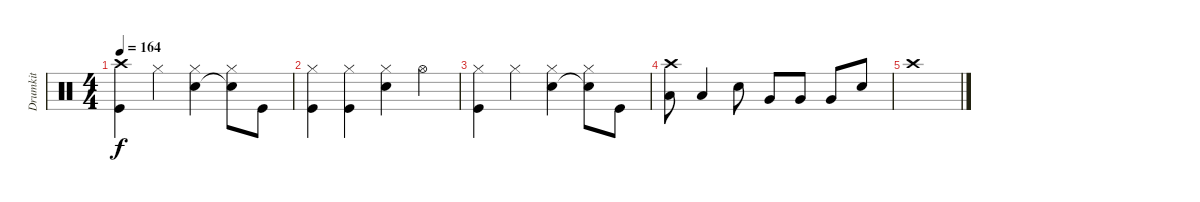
\track ("Drumkit" "Drumkit") {instrument percussion}
\staff {score}
\articulation defaults
\ts (4 4)
\tempo 164
\clef neutral
\ks c
("Crash high (hit)" "Kick (hit)").4{dy f} "Hi-Hat (closed)".4 ("Hi-Hat (closed)" "Snare (hit) 2").4 ("Hi-Hat (closed)" "Snare (hit) 2"{t}).8 "Kick (hit)".8 |
("Hi-Hat (closed)" "Kick (hit)").4 ("Hi-Hat (closed)" "Kick (hit)").4 ("Hi-Hat (closed)" "Snare (hit) 2").4 "Hi-Hat (open)".4 |
("Hi-Hat (closed)" "Kick (hit)").4 "Hi-Hat (closed)".4 ("Hi-Hat (closed)" "Snare (hit) 2").4 ("Hi-Hat (closed)" "Snare (hit) 2"{t}).8 "Kick (hit)".8 |
("Low Tom (hit)" "Crash high (hit)").8 "Low Tom (hit)".4 "Snare (hit) 2".8 "Very Low Tom (hit)".8 "Very Low Tom (hit)".8 "Very Low Tom (hit)".8 "Snare (hit) 2".8 |
"Crash high (hit)".1
